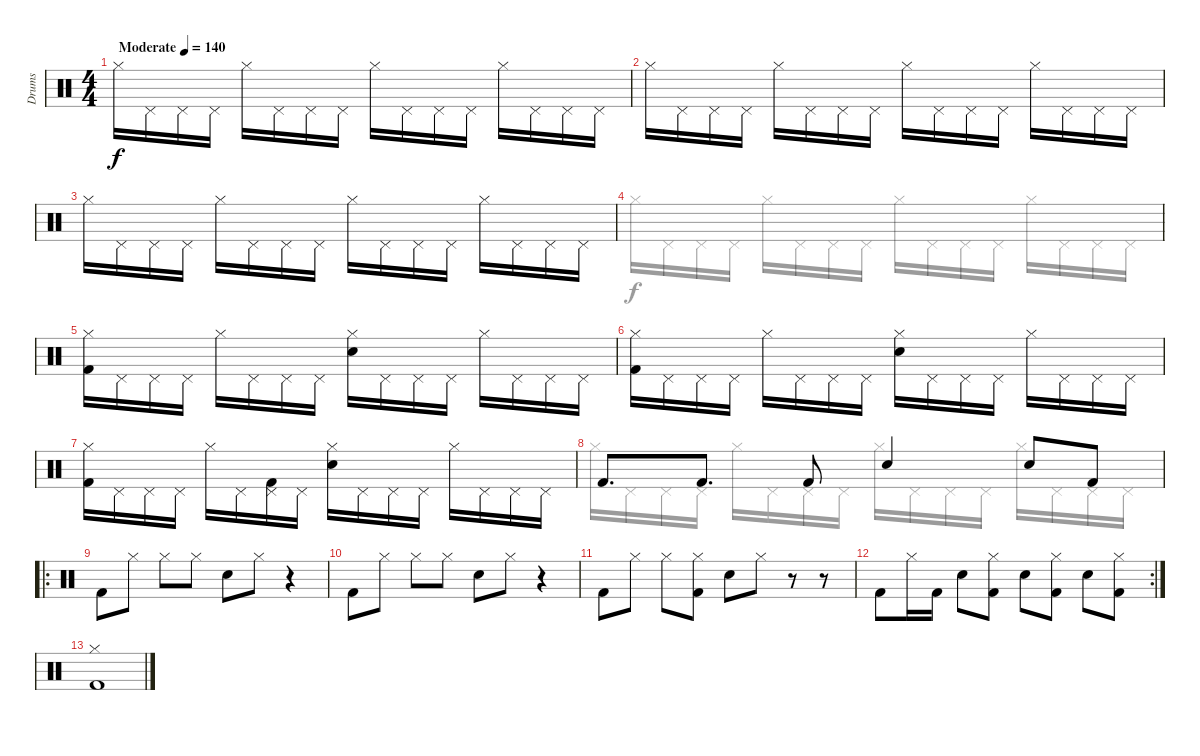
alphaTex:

\track ("Drums" "Drums") {instrument percussion}
\staff {score}
\articulation defaults
\voice
\ts (4 4)
\tempo (140 "Moderate")
\clef neutral
\ks c "Hi-Hat (closed)".16{dy f} "Pedal Hi-Hat (hit)".16 "Pedal Hi-Hat (hit)".16 "Pedal Hi-Hat (hit)".16 "Hi-Hat (closed)".16 "Pedal Hi-Hat (hit)".16 "Pedal Hi-Hat (hit)".16 "Pedal Hi-Hat (hit)".16 "Hi-Hat (closed)".16 "Pedal Hi-Hat (hit)".16 "Pedal Hi-Hat (hit)".16 "Pedal Hi-Hat (hit)".16 "Hi-Hat (closed)".16 "Pedal Hi-Hat (hit)".16 "Pedal Hi-Hat (hit)".16 "Pedal Hi-Hat (hit)".16
|
"Hi-Hat (closed)".16 "Pedal Hi-Hat (hit)".16 "Pedal Hi-Hat (hit)".16 "Pedal Hi-Hat (hit)".16 "Hi-Hat (closed)".16 "Pedal Hi-Hat (hit)".16 "Pedal Hi-Hat (hit)".16 "Pedal Hi-Hat (hit)".16 "Hi-Hat (closed)".16 "Pedal Hi-Hat (hit)".16 "Pedal Hi-Hat (hit)".16 "Pedal Hi-Hat (hit)".16 "Hi-Hat (closed)".16 "Pedal Hi-Hat (hit)".16 "Pedal Hi-Hat (hit)".16 "Pedal Hi-Hat (hit)".16 |
"Hi-Hat (closed)".16 "Pedal Hi-Hat (hit)".16 "Pedal Hi-Hat (hit)".16 "Pedal Hi-Hat (hit)".16 "Hi-Hat (closed)".16 "Pedal Hi-Hat (hit)".16 "Pedal Hi-Hat (hit)".16 "Pedal Hi-Hat (hit)".16 "Hi-Hat (closed)".16 "Pedal Hi-Hat (hit)".16 "Pedal Hi-Hat (hit)".16 "Pedal Hi-Hat (hit)".16 "Hi-Hat (closed)".16 "Pedal Hi-Hat (hit)".16 "Pedal Hi-Hat (hit)".16 "Pedal Hi-Hat (hit)".16 |
|
("Hi-Hat (closed)" "Kick (hit) 2").16 "Pedal Hi-Hat (hit)".16 "Pedal Hi-Hat (hit)".16 "Pedal Hi-Hat (hit)".16 "Hi-Hat (closed)".16 "Pedal Hi-Hat (hit)".16 "Pedal Hi-Hat (hit)".16 "Pedal Hi-Hat (hit)".16 ("Hi-Hat (closed)" "Snare (hit) 2").16 "Pedal Hi-Hat (hit)".16 "Pedal Hi-Hat (hit)".16 "Pedal Hi-Hat (hit)".16 "Hi-Hat (closed)".16 "Pedal Hi-Hat (hit)".16 "Pedal Hi-Hat (hit)".16 "Pedal Hi-Hat (hit)".16 |
("Hi-Hat (closed)" "Kick (hit) 2").16 "Pedal Hi-Hat (hit)".16 "Pedal Hi-Hat (hit)".16 "Pedal Hi-Hat (hit)".16 "Hi-Hat (closed)".16 "Pedal Hi-Hat (hit)".16 "Pedal Hi-Hat (hit)".16 "Pedal Hi-Hat (hit)".16 ("Hi-Hat (closed)" "Snare (hit) 2").16 "Pedal Hi-Hat (hit)".16 "Pedal Hi-Hat (hit)".16 "Pedal Hi-Hat (hit)".16 "Hi-Hat (closed)".16 "Pedal Hi-Hat (hit)".16 "Pedal Hi-Hat (hit)".16 "Pedal Hi-Hat (hit)".16 |
("Hi-Hat (closed)" "Kick (hit) 2").16 "Pedal Hi-Hat (hit)".16 "Pedal Hi-Hat (hit)".16 "Pedal Hi-Hat (hit)".16 "Hi-Hat (closed)".16 "Pedal Hi-Hat (hit)".16 ("Pedal Hi-Hat (hit)" "Kick (hit) 2").16 "Pedal Hi-Hat (hit)".16 ("Hi-Hat (closed)" "Snare (hit) 2").16 "Pedal Hi-Hat (hit)".16 "Pedal Hi-Hat (hit)".16 "Pedal Hi-Hat (hit)".16 "Hi-Hat (closed)".16 "Pedal Hi-Hat (hit)".16 "Pedal Hi-Hat (hit)".16 "Pedal Hi-Hat (hit)".16 |
"Kick (hit) 2".8{d} "Kick (hit) 2".8{d} "Kick (hit) 2".8 "Snare (hit) 2".4 "Snare (hit) 2".8 "Kick (hit) 2".8 |
\ro "Kick (hit) 2".8 "Hi-Hat (closed)".8 "Hi-Hat (closed)".8 "Hi-Hat (closed)".8 "Snare (hit) 2".8 "Hi-Hat (closed)".8
r.4 |
"Kick (hit) 2".8 "Hi-Hat (closed)".8 "Hi-Hat (closed)".8 "Hi-Hat (closed)".8 "Snare (hit) 2".8 "Hi-Hat (closed)".8 r.4 |
"Kick (hit) 2".8 "Hi-Hat (closed)".8 "Hi-Hat (closed)".8 ("Hi-Hat (closed)" "Kick (hit) 2").8 "Snare (hit) 2".8 "Hi-Hat (closed)".8 r.8 r.8 |
\rc 2 "Kick (hit) 2".8 "Hi-Hat (closed)".16 "Kick (hit) 2".16 "Snare (hit) 2".8
("Hi-Hat (closed)" "Kick (hit) 2").8 "Snare (hit) 2".8 ("Hi-Hat (closed)" "Kick (hit) 2").8 "Snare (hit) 2".8 ("Hi-Hat (closed)" "Kick (hit) 2").8 |
("Hi-Hat (closed)" "Kick (hit) 2").1 |
|
|
\voice
\clef neutral
\ottava regular
\simile none
\ks c
|
|
|
"Hi-Hat (closed)".16 "Pedal Hi-Hat (hit)".16 "Pedal Hi-Hat (hit)".16 "Pedal Hi-Hat (hit)".16 "Hi-Hat (closed)".16 "Pedal Hi-Hat (hit)".16 "Pedal Hi-Hat (hit)".16 "Pedal Hi-Hat (hit)".16 "Hi-Hat (closed)".16 "Pedal Hi-Hat (hit)".16 "Pedal Hi-Hat (hit)".16 "Pedal Hi-Hat (hit)".16 "Hi-Hat (closed)".16 "Pedal Hi-Hat (hit)".16 "Pedal Hi-Hat (hit)".16 "Pedal Hi-Hat (hit)".16 |
|
|
|
"Hi-Hat (closed)".16 "Pedal Hi-Hat (hit)".16 "Pedal Hi-Hat (hit)".16 "Pedal Hi-Hat (hit)".16 "Hi-Hat (closed)".16 "Pedal Hi-Hat (hit)".16 "Pedal Hi-Hat (hit)".16 "Pedal Hi-Hat (hit)".16 "Hi-Hat (closed)".16 "Pedal Hi-Hat (hit)".16 "Pedal Hi-Hat (hit)".16 "Pedal Hi-Hat (hit)".16 "Hi-Hat (closed)".16 "Pedal Hi-Hat (hit)".16 "Pedal Hi-Hat (hit)".16 "Pedal Hi-Hat (hit)".16 |
|
|
|
|
|
|
|
